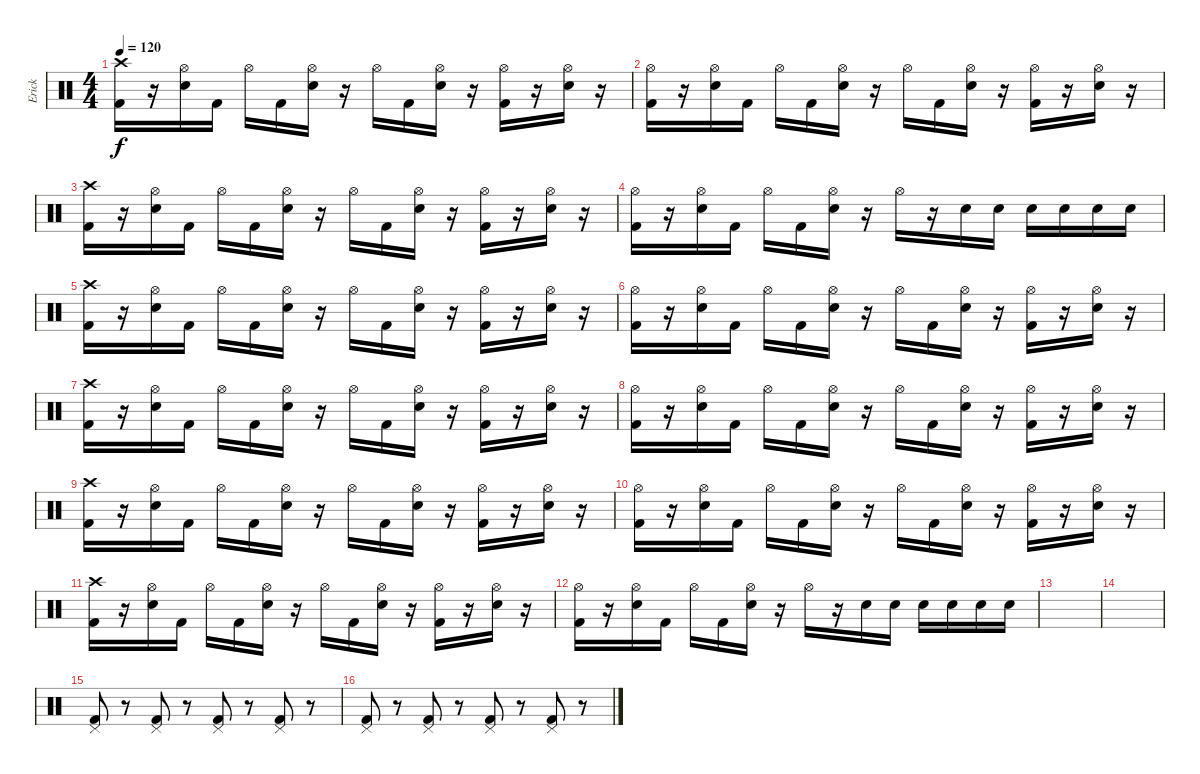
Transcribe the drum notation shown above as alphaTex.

\track ("Erick" "Erick") {instrument percussion}
\staff {score}
\articulation defaults
\ts (4 4)
\tempo 120
\clef neutral
\ks c
("Crash high (hit)" "Kick (hit) 2").16{dy f} r.16 ("Hi-Hat (open)" "Electric Snare (hit)").16 "Kick (hit) 2".16 "Hi-Hat (open)".16 "Kick (hit) 2".16 ("Hi-Hat (open)" "Electric Snare (hit)").16 r.16 "Hi-Hat (open)".16 "Kick (hit) 2".16 ("Hi-Hat (open)" "Electric Snare (hit)").16 r.16 ("Hi-Hat (open)" "Kick (hit) 2").16 r.16 ("Hi-Hat (open)" "Electric Snare (hit)").16 r.16 |
("Hi-Hat (open)" "Kick (hit) 2").16 r.16 ("Hi-Hat (open)" "Electric Snare (hit)").16 "Kick (hit) 2".16 "Hi-Hat (open)".16 "Kick (hit) 2".16 ("Hi-Hat (open)" "Electric Snare (hit)").16 r.16 "Hi-Hat (open)".16 "Kick (hit) 2".16 ("Hi-Hat (open)" "Electric Snare (hit)").16 r.16 ("Hi-Hat (open)" "Kick (hit) 2").16 r.16 ("Hi-Hat (open)" "Electric Snare (hit)").16 r.16 |
("Crash high (hit)" "Kick (hit) 2").16 r.16 ("Hi-Hat (open)" "Electric Snare (hit)").16 "Kick (hit) 2".16 "Hi-Hat (open)".16 "Kick (hit) 2".16 ("Hi-Hat (open)" "Electric Snare (hit)").16 r.16 "Hi-Hat (open)".16 "Kick (hit) 2".16 ("Hi-Hat (open)" "Electric Snare (hit)").16 r.16 ("Hi-Hat (open)" "Kick (hit) 2").16 r.16 ("Hi-Hat (open)" "Electric Snare (hit)").16 r.16 |
("Hi-Hat (open)" "Kick (hit) 2").16 r.16 ("Hi-Hat (open)" "Electric Snare (hit)").16 "Kick (hit) 2".16 "Hi-Hat (open)".16 "Kick (hit) 2".16 ("Hi-Hat (open)" "Electric Snare (hit)").16 r.16 "Hi-Hat (open)".16 r.16 "Electric Snare (hit)".16 "Electric Snare (hit)".16 "Electric Snare (hit)".16 "Electric Snare (hit)".16 "Electric Snare (hit)".16 "Electric Snare (hit)".16 |
("Crash high (hit)" "Kick (hit) 2").16 r.16 ("Hi-Hat (open)" "Electric Snare (hit)").16 "Kick (hit) 2".16 "Hi-Hat (open)".16 "Kick (hit) 2".16 ("Hi-Hat (open)" "Electric Snare (hit)").16 r.16 "Hi-Hat (open)".16 "Kick (hit) 2".16 ("Hi-Hat (open)" "Electric Snare (hit)").16 r.16 ("Hi-Hat (open)" "Kick (hit) 2").16 r.16 ("Hi-Hat (open)" "Electric Snare (hit)").16 r.16 |
("Hi-Hat (open)" "Kick (hit) 2").16 r.16 ("Hi-Hat (open)" "Electric Snare (hit)").16 "Kick (hit) 2".16 "Hi-Hat (open)".16 "Kick (hit) 2".16 ("Hi-Hat (open)" "Electric Snare (hit)").16 r.16 "Hi-Hat (open)".16 "Kick (hit) 2".16 ("Hi-Hat (open)" "Electric Snare (hit)").16 r.16 ("Hi-Hat (open)" "Kick (hit) 2").16 r.16 ("Hi-Hat (open)" "Electric Snare (hit)").16 r.16 |
("Crash high (hit)" "Kick (hit) 2").16 r.16 ("Hi-Hat (open)" "Electric Snare (hit)").16 "Kick (hit) 2".16 "Hi-Hat (open)".16 "Kick (hit) 2".16 ("Hi-Hat (open)" "Electric Snare (hit)").16 r.16 "Hi-Hat (open)".16 "Kick (hit) 2".16 ("Hi-Hat (open)" "Electric Snare (hit)").16 r.16 ("Hi-Hat (open)" "Kick (hit) 2").16 r.16 ("Hi-Hat (open)" "Electric Snare (hit)").16 r.16 |
("Hi-Hat (open)" "Kick (hit) 2").16 r.16 ("Hi-Hat (open)" "Electric Snare (hit)").16 "Kick (hit) 2".16 "Hi-Hat (open)".16 "Kick (hit) 2".16 ("Hi-Hat (open)" "Electric Snare (hit)").16 r.16 "Hi-Hat (open)".16 "Kick (hit) 2".16 ("Hi-Hat (open)" "Electric Snare (hit)").16 r.16 ("Hi-Hat (open)" "Kick (hit) 2").16 r.16 ("Hi-Hat (open)" "Electric Snare (hit)").16 r.16 |
("Crash high (hit)" "Kick (hit) 2").16 r.16 ("Hi-Hat (open)" "Electric Snare (hit)").16 "Kick (hit) 2".16 "Hi-Hat (open)".16 "Kick (hit) 2".16 ("Hi-Hat (open)" "Electric Snare (hit)").16 r.16 "Hi-Hat (open)".16 "Kick (hit) 2".16 ("Hi-Hat (open)" "Electric Snare (hit)").16 r.16 ("Hi-Hat (open)" "Kick (hit) 2").16 r.16 ("Hi-Hat (open)" "Electric Snare (hit)").16 r.16 |
("Hi-Hat (open)" "Kick (hit) 2").16 r.16 ("Hi-Hat (open)" "Electric Snare (hit)").16 "Kick (hit) 2".16 "Hi-Hat (open)".16 "Kick (hit) 2".16 ("Hi-Hat (open)" "Electric Snare (hit)").16 r.16 "Hi-Hat (open)".16 "Kick (hit) 2".16 ("Hi-Hat (open)" "Electric Snare (hit)").16 r.16 ("Hi-Hat (open)" "Kick (hit) 2").16 r.16 ("Hi-Hat (open)" "Electric Snare (hit)").16 r.16 |
("Crash high (hit)" "Kick (hit) 2").16 r.16 ("Hi-Hat (open)" "Electric Snare (hit)").16 "Kick (hit) 2".16 "Hi-Hat (open)".16 "Kick (hit) 2".16 ("Hi-Hat (open)" "Electric Snare (hit)").16 r.16 "Hi-Hat (open)".16 "Kick (hit) 2".16 ("Hi-Hat (open)" "Electric Snare (hit)").16 r.16 ("Hi-Hat (open)" "Kick (hit) 2").16 r.16 ("Hi-Hat (open)" "Electric Snare (hit)").16 r.16 |
("Hi-Hat (open)" "Kick (hit) 2").16 r.16 ("Hi-Hat (open)" "Electric Snare (hit)").16 "Kick (hit) 2".16 "Hi-Hat (open)".16 "Kick (hit) 2".16 ("Hi-Hat (open)" "Electric Snare (hit)").16 r.16 "Hi-Hat (open)".16 r.16 "Electric Snare (hit)".16 "Electric Snare (hit)".16 "Electric Snare (hit)".16 "Electric Snare (hit)".16 "Electric Snare (hit)".16 "Electric Snare (hit)".16 |
|
|
("Pedal Hi-Hat (hit)" "Kick (hit) 2").8 r.8 ("Pedal Hi-Hat (hit)" "Kick (hit) 2").8 r.8 ("Pedal Hi-Hat (hit)" "Kick (hit) 2").8 r.8 ("Pedal Hi-Hat (hit)" "Kick (hit) 2").8 r.8 |
("Pedal Hi-Hat (hit)" "Kick (hit) 2").8 r.8 ("Pedal Hi-Hat (hit)" "Kick (hit) 2").8 r.8 ("Pedal Hi-Hat (hit)" "Kick (hit) 2").8 r.8 ("Pedal Hi-Hat (hit)" "Kick (hit) 2").8 r.8
